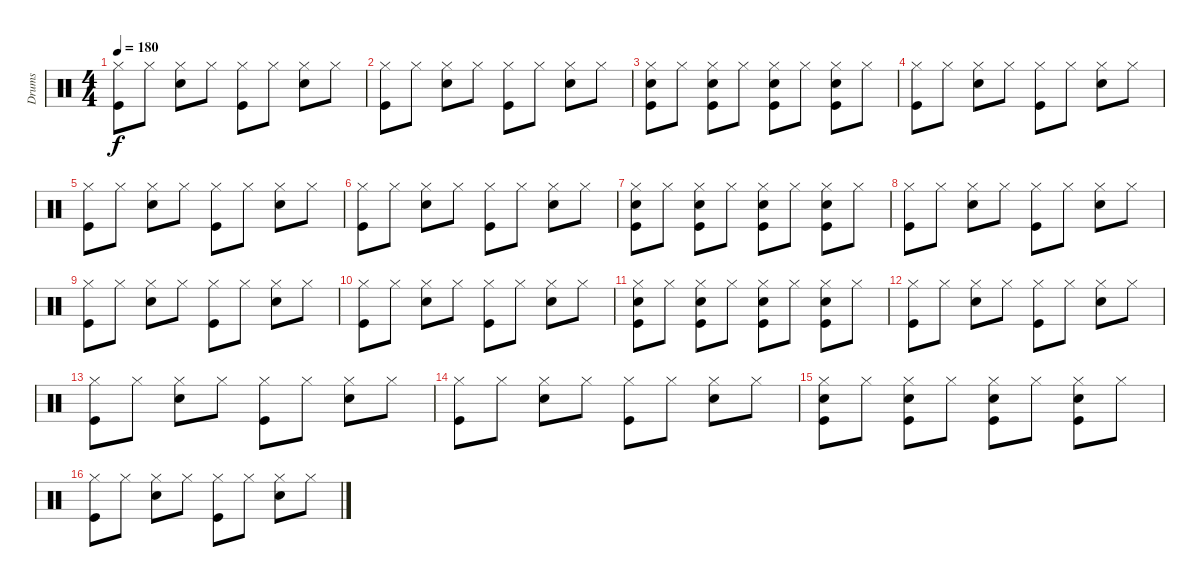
\track ("Drums" "Drums") {instrument percussion}
\staff {score}
\articulation defaults
\ts (4 4)
\tempo 180
\clef neutral
\ks c
("Hi-Hat (closed)" "Kick (hit)").8{dy f} "Hi-Hat (closed)".8 ("Hi-Hat (closed)" "Snare (hit) 2").8 "Hi-Hat (closed)".8 ("Hi-Hat (closed)" "Kick (hit)").8 "Hi-Hat (closed)".8 ("Hi-Hat (closed)" "Snare (hit) 2").8 "Hi-Hat (closed)".8 |
("Hi-Hat (closed)" "Kick (hit)").8 "Hi-Hat (closed)".8 ("Hi-Hat (closed)" "Snare (hit) 2").8 "Hi-Hat (closed)".8 ("Hi-Hat (closed)" "Kick (hit)").8 "Hi-Hat (closed)".8 ("Hi-Hat (closed)" "Snare (hit) 2").8 "Hi-Hat (closed)".8 |
("Hi-Hat (closed)" "Kick (hit)" "Snare (hit) 2").8 "Hi-Hat (closed)".8 ("Hi-Hat (closed)" "Kick (hit)" "Snare (hit) 2").8 "Hi-Hat (closed)".8 ("Hi-Hat (closed)" "Kick (hit)" "Snare (hit) 2").8 "Hi-Hat (closed)".8 ("Hi-Hat (closed)" "Kick (hit)" "Snare (hit) 2").8 "Hi-Hat (closed)".8 |
("Hi-Hat (closed)" "Kick (hit)").8 "Hi-Hat (closed)".8 ("Hi-Hat (closed)" "Snare (hit) 2").8 "Hi-Hat (closed)".8 ("Hi-Hat (closed)" "Kick (hit)").8 "Hi-Hat (closed)".8 ("Hi-Hat (closed)" "Snare (hit) 2").8 "Hi-Hat (closed)".8 |
("Hi-Hat (closed)" "Kick (hit)").8 "Hi-Hat (closed)".8 ("Hi-Hat (closed)" "Snare (hit) 2").8 "Hi-Hat (closed)".8 ("Hi-Hat (closed)" "Kick (hit)").8 "Hi-Hat (closed)".8 ("Hi-Hat (closed)" "Snare (hit) 2").8 "Hi-Hat (closed)".8 |
("Hi-Hat (closed)" "Kick (hit)").8 "Hi-Hat (closed)".8 ("Hi-Hat (closed)" "Snare (hit) 2").8 "Hi-Hat (closed)".8 ("Hi-Hat (closed)" "Kick (hit)").8 "Hi-Hat (closed)".8 ("Hi-Hat (closed)" "Snare (hit) 2").8 "Hi-Hat (closed)".8 |
("Hi-Hat (closed)" "Kick (hit)" "Snare (hit) 2").8 "Hi-Hat (closed)".8 ("Hi-Hat (closed)" "Kick (hit)" "Snare (hit) 2").8 "Hi-Hat (closed)".8 ("Hi-Hat (closed)" "Kick (hit)" "Snare (hit) 2").8 "Hi-Hat (closed)".8 ("Hi-Hat (closed)" "Kick (hit)" "Snare (hit) 2").8 "Hi-Hat (closed)".8 |
("Hi-Hat (closed)" "Kick (hit)").8 "Hi-Hat (closed)".8 ("Hi-Hat (closed)" "Snare (hit) 2").8 "Hi-Hat (closed)".8 ("Hi-Hat (closed)" "Kick (hit)").8 "Hi-Hat (closed)".8 ("Hi-Hat (closed)" "Snare (hit) 2").8 "Hi-Hat (closed)".8 |
("Hi-Hat (closed)" "Kick (hit)").8 "Hi-Hat (closed)".8 ("Hi-Hat (closed)" "Snare (hit) 2").8 "Hi-Hat (closed)".8 ("Hi-Hat (closed)" "Kick (hit)").8 "Hi-Hat (closed)".8 ("Hi-Hat (closed)" "Snare (hit) 2").8 "Hi-Hat (closed)".8 |
("Hi-Hat (closed)" "Kick (hit)").8 "Hi-Hat (closed)".8 ("Hi-Hat (closed)" "Snare (hit) 2").8 "Hi-Hat (closed)".8 ("Hi-Hat (closed)" "Kick (hit)").8 "Hi-Hat (closed)".8 ("Hi-Hat (closed)" "Snare (hit) 2").8 "Hi-Hat (closed)".8 |
("Hi-Hat (closed)" "Kick (hit)" "Snare (hit) 2").8 "Hi-Hat (closed)".8 ("Hi-Hat (closed)" "Kick (hit)" "Snare (hit) 2").8 "Hi-Hat (closed)".8 ("Hi-Hat (closed)" "Kick (hit)" "Snare (hit) 2").8 "Hi-Hat (closed)".8 ("Hi-Hat (closed)" "Kick (hit)" "Snare (hit) 2").8 "Hi-Hat (closed)".8 |
("Hi-Hat (closed)" "Kick (hit)").8 "Hi-Hat (closed)".8 ("Hi-Hat (closed)" "Snare (hit) 2").8 "Hi-Hat (closed)".8 ("Hi-Hat (closed)" "Kick (hit)").8 "Hi-Hat (closed)".8 ("Hi-Hat (closed)" "Snare (hit) 2").8 "Hi-Hat (closed)".8 |
("Hi-Hat (closed)" "Kick (hit)").8 "Hi-Hat (closed)".8 ("Hi-Hat (closed)" "Snare (hit) 2").8 "Hi-Hat (closed)".8 ("Hi-Hat (closed)" "Kick (hit)").8 "Hi-Hat (closed)".8 ("Hi-Hat (closed)" "Snare (hit) 2").8 "Hi-Hat (closed)".8 |
("Hi-Hat (closed)" "Kick (hit)").8 "Hi-Hat (closed)".8 ("Hi-Hat (closed)" "Snare (hit) 2").8 "Hi-Hat (closed)".8 ("Hi-Hat (closed)" "Kick (hit)").8 "Hi-Hat (closed)".8 ("Hi-Hat (closed)" "Snare (hit) 2").8 "Hi-Hat (closed)".8 |
("Hi-Hat (closed)" "Kick (hit)" "Snare (hit) 2").8 "Hi-Hat (closed)".8 ("Hi-Hat (closed)" "Kick (hit)" "Snare (hit) 2").8 "Hi-Hat (closed)".8 ("Hi-Hat (closed)" "Kick (hit)" "Snare (hit) 2").8 "Hi-Hat (closed)".8 ("Hi-Hat (closed)" "Kick (hit)" "Snare (hit) 2").8 "Hi-Hat (closed)".8 |
("Hi-Hat (closed)" "Kick (hit)").8 "Hi-Hat (closed)".8 ("Hi-Hat (closed)" "Snare (hit) 2").8 "Hi-Hat (closed)".8 ("Hi-Hat (closed)" "Kick (hit)").8 "Hi-Hat (closed)".8 ("Hi-Hat (closed)" "Snare (hit) 2").8 "Hi-Hat (closed)".8
